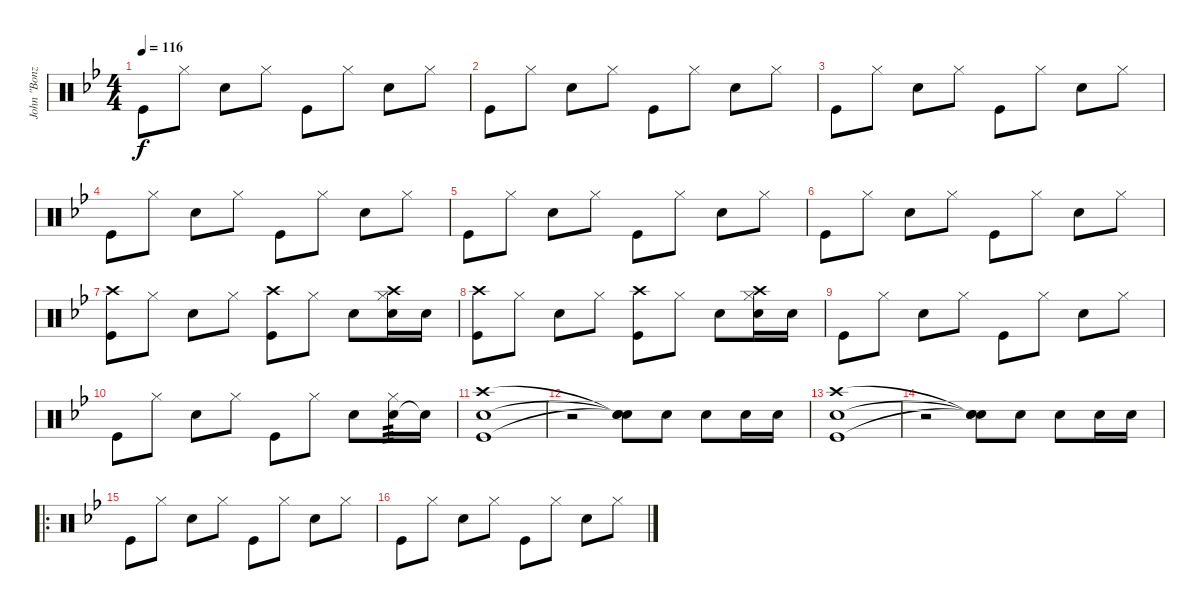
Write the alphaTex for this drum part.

\track ("John \"Bonzo\" Bonham" "John \"Bonz") {instrument percussion}
\staff {score}
\articulation defaults
\ts (4 4)
\tempo 116
\clef neutral
\ks bb "Kick (hit)".8{dy f} "Hi-Hat (closed)".8 "Snare (hit) 2".8 "Hi-Hat (closed)".8 "Kick (hit)".8 "Hi-Hat (closed)".8 "Snare (hit) 2".8 "Hi-Hat (closed)".8
|
"Kick (hit)".8 "Hi-Hat (closed)".8 "Snare (hit) 2".8 "Hi-Hat (closed)".8 "Kick (hit)".8 "Hi-Hat (closed)".8 "Snare (hit) 2".8 "Hi-Hat (closed)".8 |
"Kick (hit)".8 "Hi-Hat (closed)".8 "Snare (hit) 2".8 "Hi-Hat (closed)".8 "Kick (hit)".8 "Hi-Hat (closed)".8 "Snare (hit) 2".8 "Hi-Hat (closed)".8 |
"Kick (hit)".8 "Hi-Hat (closed)".8 "Snare (hit) 2".8 "Hi-Hat (closed)".8 "Kick (hit)".8 "Hi-Hat (closed)".8 "Snare (hit) 2".8 "Hi-Hat (closed)".8 |
"Kick (hit)".8 "Hi-Hat (closed)".8 "Snare (hit) 2".8 "Hi-Hat (closed)".8 "Kick (hit)".8 "Hi-Hat (closed)".8 "Snare (hit) 2".8 "Hi-Hat (closed)".8 |
"Kick (hit)".8 "Hi-Hat (closed)".8 "Snare (hit) 2".8 "Hi-Hat (closed)".8 "Kick (hit)".8 "Hi-Hat (closed)".8 "Snare (hit) 2".8 "Hi-Hat (closed)".8 |
("Kick (hit)" "Crash high (hit)").8 "Hi-Hat (closed)".8 "Snare (hit) 2".8 "Hi-Hat (closed)".8 ("Kick (hit)" "Crash high (hit)").8 "Hi-Hat (closed)".8 "Snare (hit) 2".8 ("Snare (hit) 2" "Hi-Hat (closed)" "Crash high (hit)").16 "Snare (hit) 2".16 |
("Kick (hit)" "Crash high (hit)").8 "Hi-Hat (closed)".8 "Snare (hit) 2".8 "Hi-Hat (closed)".8 ("Kick (hit)" "Crash high (hit)").8 "Hi-Hat (closed)".8 "Snare (hit) 2".8 ("Snare (hit) 2" "Hi-Hat (closed)" "Crash high (hit)").16 "Snare (hit) 2".16 |
"Kick (hit)".8 "Hi-Hat (closed)".8 "Snare (hit) 2".8 "Hi-Hat (closed)".8 "Kick (hit)".8 "Hi-Hat (closed)".8 "Snare (hit) 2".8 "Hi-Hat (closed)".8 |
"Kick (hit)".8 "Hi-Hat (closed)".8 "Snare (hit) 2".8 "Hi-Hat (closed)".8 "Kick (hit)".8 "Hi-Hat (closed)".8 "Snare (hit) 2".8 ("Snare (hit) 2" "Hi-Hat (closed)").16{tp 3} "Snare (hit) 2"{t}.16 |
("Kick (hit)" "Snare (hit) 2" "Crash high (hit)").1 |
r.2 ("Snare (hit)"{t} "Snare (hit)"{t} "Snare (hit)"{t}).8 "Snare (hit) 2".8 "Snare (hit) 2".8 "Snare (hit) 2".16 "Snare (hit) 2".16 |
("Kick (hit)" "Snare (hit) 2" "Crash high (hit)").1 |
r.2 ("Snare (hit)"{t} "Snare (hit)"{t} "Snare (hit)"{t}).8 "Snare (hit) 2".8 "Snare (hit) 2".8 "Snare (hit) 2".16 "Snare (hit) 2".16 |
\ro "Kick (hit)".8 "Hi-Hat (closed)".8 "Snare (hit) 2".8 "Hi-Hat (closed)".8 "Kick (hit)".8 "Hi-Hat (closed)".8 "Snare (hit) 2".8 "Hi-Hat (closed)".8
|
"Kick (hit)".8 "Hi-Hat (closed)".8 "Snare (hit) 2".8 "Hi-Hat (closed)".8 "Kick (hit)".8 "Hi-Hat (closed)".8 "Snare (hit) 2".8 "Hi-Hat (closed)".8
